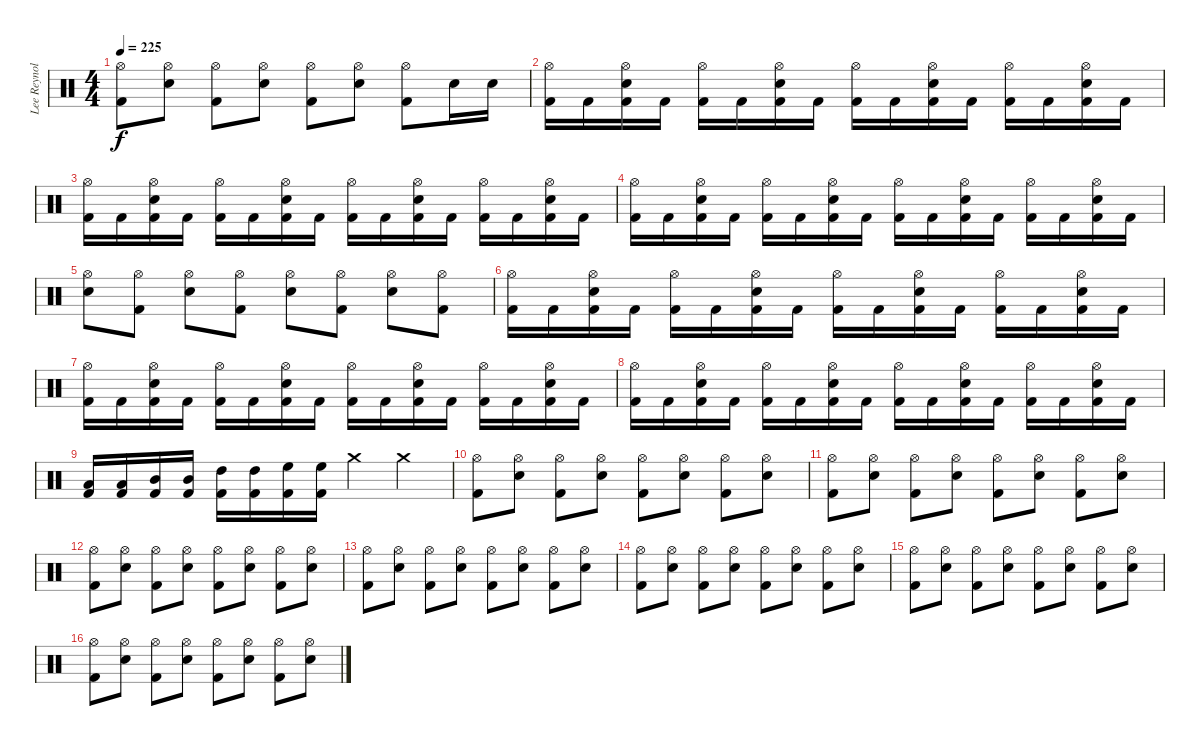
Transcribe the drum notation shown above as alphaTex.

\track ("Lee Reynolds" "Lee Reynol") {instrument percussion}
\staff {score}
\articulation defaults
\ts (4 4)
\tempo 225
\clef neutral
\ks c
("Hi-Hat (open)" "Kick (hit) 2").8{dy f} ("Hi-Hat (open)" "Snare (hit) 2").8 ("Hi-Hat (open)" "Kick (hit) 2").8 ("Hi-Hat (open)" "Snare (hit) 2").8 ("Hi-Hat (open)" "Kick (hit) 2").8 ("Hi-Hat (open)" "Snare (hit) 2").8 ("Hi-Hat (open)" "Kick (hit) 2").8 "Snare (hit) 2".16 "Snare (hit) 2".16 |
("Hi-Hat (open)" "Kick (hit) 2").16 "Kick (hit) 2".16 ("Hi-Hat (open)" "Snare (hit) 2" "Kick (hit) 2").16 "Kick (hit) 2".16 ("Hi-Hat (open)" "Kick (hit) 2").16 "Kick (hit) 2".16 ("Hi-Hat (open)" "Snare (hit) 2" "Kick (hit) 2").16 "Kick (hit) 2".16 ("Hi-Hat (open)" "Kick (hit) 2").16 "Kick (hit) 2".16 ("Hi-Hat (open)" "Snare (hit) 2" "Kick (hit) 2").16 "Kick (hit) 2".16 ("Hi-Hat (open)" "Kick (hit) 2").16 "Kick (hit) 2".16 ("Hi-Hat (open)" "Snare (hit) 2" "Kick (hit) 2").16 "Kick (hit) 2".16 |
("Hi-Hat (open)" "Kick (hit) 2").16 "Kick (hit) 2".16 ("Hi-Hat (open)" "Snare (hit) 2" "Kick (hit) 2").16 "Kick (hit) 2".16 ("Hi-Hat (open)" "Kick (hit) 2").16 "Kick (hit) 2".16 ("Hi-Hat (open)" "Snare (hit) 2" "Kick (hit) 2").16 "Kick (hit) 2".16 ("Hi-Hat (open)" "Kick (hit) 2").16 "Kick (hit) 2".16 ("Hi-Hat (open)" "Snare (hit) 2" "Kick (hit) 2").16 "Kick (hit) 2".16 ("Hi-Hat (open)" "Kick (hit) 2").16 "Kick (hit) 2".16 ("Hi-Hat (open)" "Snare (hit) 2" "Kick (hit) 2").16 "Kick (hit) 2".16 |
("Hi-Hat (open)" "Kick (hit) 2").16 "Kick (hit) 2".16 ("Hi-Hat (open)" "Snare (hit) 2" "Kick (hit) 2").16 "Kick (hit) 2".16 ("Hi-Hat (open)" "Kick (hit) 2").16 "Kick (hit) 2".16 ("Hi-Hat (open)" "Snare (hit) 2" "Kick (hit) 2").16 "Kick (hit) 2".16 ("Hi-Hat (open)" "Kick (hit) 2").16 "Kick (hit) 2".16 ("Hi-Hat (open)" "Snare (hit) 2" "Kick (hit) 2").16 "Kick (hit) 2".16 ("Hi-Hat (open)" "Kick (hit) 2").16 "Kick (hit) 2".16 ("Hi-Hat (open)" "Snare (hit) 2" "Kick (hit) 2").16 "Kick (hit) 2".16 |
("Hi-Hat (open)" "Snare (hit) 2").8 ("Hi-Hat (open)" "Kick (hit) 2").8 ("Hi-Hat (open)" "Snare (hit) 2").8 ("Hi-Hat (open)" "Kick (hit) 2").8 ("Hi-Hat (open)" "Snare (hit) 2").8 ("Hi-Hat (open)" "Kick (hit) 2").8 ("Hi-Hat (open)" "Snare (hit) 2").8 ("Hi-Hat (open)" "Kick (hit) 2").8 |
("Hi-Hat (open)" "Kick (hit) 2").16 "Kick (hit) 2".16 ("Hi-Hat (open)" "Snare (hit) 2" "Kick (hit) 2").16 "Kick (hit) 2".16 ("Hi-Hat (open)" "Kick (hit) 2").16 "Kick (hit) 2".16 ("Hi-Hat (open)" "Snare (hit) 2" "Kick (hit) 2").16 "Kick (hit) 2".16 ("Hi-Hat (open)" "Kick (hit) 2").16 "Kick (hit) 2".16 ("Hi-Hat (open)" "Snare (hit) 2" "Kick (hit) 2").16 "Kick (hit) 2".16 ("Hi-Hat (open)" "Kick (hit) 2").16 "Kick (hit) 2".16 ("Hi-Hat (open)" "Snare (hit) 2" "Kick (hit) 2").16 "Kick (hit) 2".16 |
("Hi-Hat (open)" "Kick (hit) 2").16 "Kick (hit) 2".16 ("Hi-Hat (open)" "Snare (hit) 2" "Kick (hit) 2").16 "Kick (hit) 2".16 ("Hi-Hat (open)" "Kick (hit) 2").16 "Kick (hit) 2".16 ("Hi-Hat (open)" "Snare (hit) 2" "Kick (hit) 2").16 "Kick (hit) 2".16 ("Hi-Hat (open)" "Kick (hit) 2").16 "Kick (hit) 2".16 ("Hi-Hat (open)" "Snare (hit) 2" "Kick (hit) 2").16 "Kick (hit) 2".16 ("Hi-Hat (open)" "Kick (hit) 2").16 "Kick (hit) 2".16 ("Hi-Hat (open)" "Snare (hit) 2" "Kick (hit) 2").16 "Kick (hit) 2".16 |
("Hi-Hat (open)" "Kick (hit) 2").16 "Kick (hit) 2".16 ("Hi-Hat (open)" "Snare (hit) 2" "Kick (hit) 2").16 "Kick (hit) 2".16 ("Hi-Hat (open)" "Kick (hit) 2").16 "Kick (hit) 2".16 ("Hi-Hat (open)" "Snare (hit) 2" "Kick (hit) 2").16 "Kick (hit) 2".16 ("Hi-Hat (open)" "Kick (hit) 2").16 "Kick (hit) 2".16 ("Hi-Hat (open)" "Snare (hit) 2" "Kick (hit) 2").16 "Kick (hit) 2".16 ("Hi-Hat (open)" "Kick (hit) 2").16 "Kick (hit) 2".16 ("Hi-Hat (open)" "Snare (hit) 2" "Kick (hit) 2").16 "Kick (hit) 2".16 |
("Low Tom (hit)" "Kick (hit) 2").16 ("Low Tom (hit)" "Kick (hit) 2").16 ("Mid Tom (hit)" "Kick (hit) 2").16 ("Mid Tom (hit)" "Kick (hit) 2").16 ("High Tom (hit)" "Kick (hit) 2").16 ("High Tom (hit)" "Kick (hit) 2").16 ("High Floor Tom (hit)" "Kick (hit) 2").16 ("High Floor Tom (hit)" "Kick (hit) 2").16 "Crash medium (hit)".4 "Crash medium (hit)".4 |
("Hi-Hat (open)" "Kick (hit) 2").8 ("Hi-Hat (open)" "Snare (hit) 2").8 ("Hi-Hat (open)" "Kick (hit) 2").8 ("Hi-Hat (open)" "Snare (hit) 2").8 ("Hi-Hat (open)" "Kick (hit) 2").8 ("Hi-Hat (open)" "Snare (hit) 2").8 ("Hi-Hat (open)" "Kick (hit) 2").8 ("Hi-Hat (open)" "Snare (hit) 2").8 |
("Hi-Hat (open)" "Kick (hit) 2").8 ("Hi-Hat (open)" "Snare (hit) 2").8 ("Hi-Hat (open)" "Kick (hit) 2").8 ("Hi-Hat (open)" "Snare (hit) 2").8 ("Hi-Hat (open)" "Kick (hit) 2").8 ("Hi-Hat (open)" "Snare (hit) 2").8 ("Hi-Hat (open)" "Kick (hit) 2").8 ("Hi-Hat (open)" "Snare (hit) 2").8 |
("Hi-Hat (open)" "Kick (hit) 2").8 ("Hi-Hat (open)" "Snare (hit) 2").8 ("Hi-Hat (open)" "Kick (hit) 2").8 ("Hi-Hat (open)" "Snare (hit) 2").8 ("Hi-Hat (open)" "Kick (hit) 2").8 ("Hi-Hat (open)" "Snare (hit) 2").8 ("Hi-Hat (open)" "Kick (hit) 2").8 ("Hi-Hat (open)" "Snare (hit) 2").8 |
("Hi-Hat (open)" "Kick (hit) 2").8 ("Hi-Hat (open)" "Snare (hit) 2").8 ("Hi-Hat (open)" "Kick (hit) 2").8 ("Hi-Hat (open)" "Snare (hit) 2").8 ("Hi-Hat (open)" "Kick (hit) 2").8 ("Hi-Hat (open)" "Snare (hit) 2").8 ("Hi-Hat (open)" "Kick (hit) 2").8 ("Hi-Hat (open)" "Snare (hit) 2").8 |
("Hi-Hat (open)" "Kick (hit) 2").8 ("Hi-Hat (open)" "Snare (hit) 2").8 ("Hi-Hat (open)" "Kick (hit) 2").8 ("Hi-Hat (open)" "Snare (hit) 2").8 ("Hi-Hat (open)" "Kick (hit) 2").8 ("Hi-Hat (open)" "Snare (hit) 2").8 ("Hi-Hat (open)" "Kick (hit) 2").8 ("Hi-Hat (open)" "Snare (hit) 2").8 |
("Hi-Hat (open)" "Kick (hit) 2").8 ("Hi-Hat (open)" "Snare (hit) 2").8 ("Hi-Hat (open)" "Kick (hit) 2").8 ("Hi-Hat (open)" "Snare (hit) 2").8 ("Hi-Hat (open)" "Kick (hit) 2").8 ("Hi-Hat (open)" "Snare (hit) 2").8 ("Hi-Hat (open)" "Kick (hit) 2").8 ("Hi-Hat (open)" "Snare (hit) 2").8 |
("Hi-Hat (open)" "Kick (hit) 2").8 ("Hi-Hat (open)" "Snare (hit) 2").8 ("Hi-Hat (open)" "Kick (hit) 2").8 ("Hi-Hat (open)" "Snare (hit) 2").8 ("Hi-Hat (open)" "Kick (hit) 2").8 ("Hi-Hat (open)" "Snare (hit) 2").8 ("Hi-Hat (open)" "Kick (hit) 2").8 ("Hi-Hat (open)" "Snare (hit) 2").8
